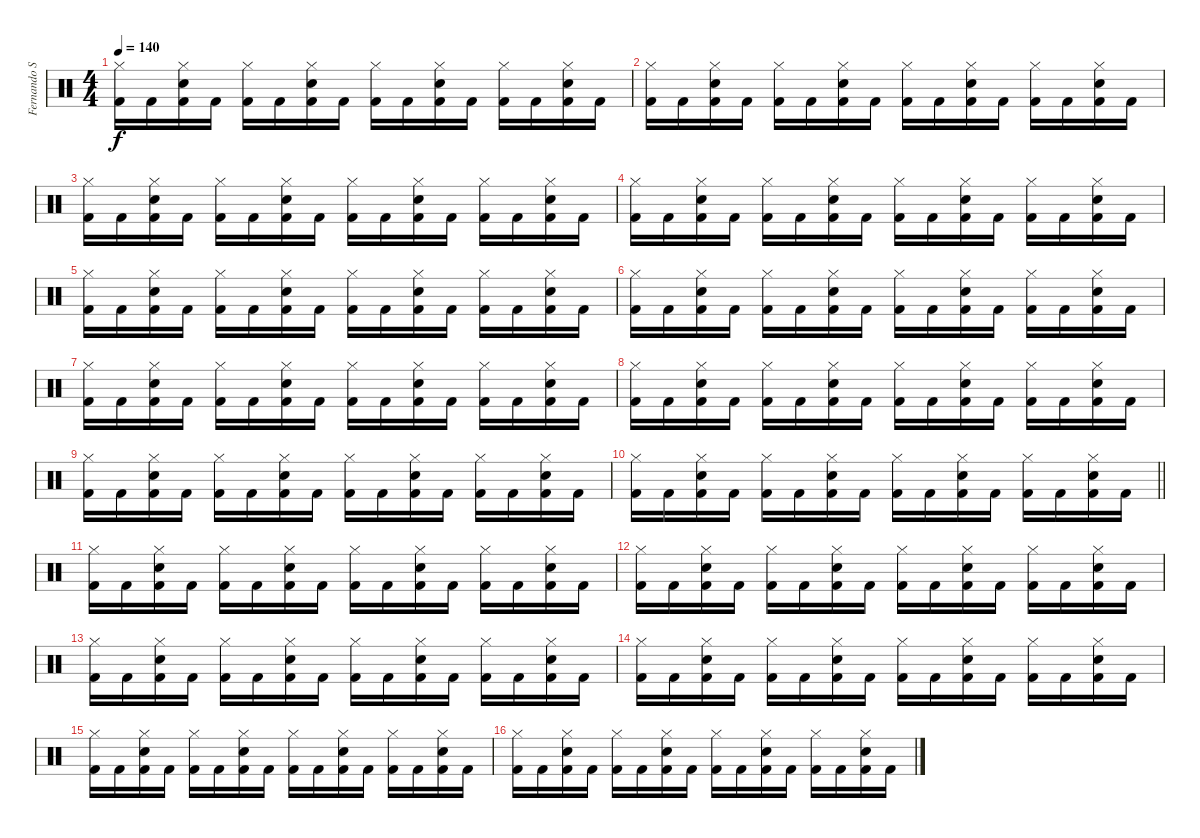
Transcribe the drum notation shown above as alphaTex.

\track ("Fernando Scarcella" "Fernando S") {instrument percussion}
\staff {score}
\articulation defaults
\ts (4 4)
\tempo 140
\clef neutral
\ks c
("Hi-Hat (closed)" "Kick (hit) 2").16{dy f} "Kick (hit) 2".16 ("Hi-Hat (closed)" "Snare (hit) 2" "Kick (hit) 2").16 "Kick (hit) 2".16 ("Hi-Hat (closed)" "Kick (hit) 2").16 "Kick (hit) 2".16 ("Hi-Hat (closed)" "Snare (hit) 2" "Kick (hit) 2").16 "Kick (hit) 2".16 ("Hi-Hat (closed)" "Kick (hit) 2").16 "Kick (hit) 2".16 ("Hi-Hat (closed)" "Snare (hit) 2" "Kick (hit) 2").16 "Kick (hit) 2".16 ("Hi-Hat (closed)" "Kick (hit) 2").16 "Kick (hit) 2".16 ("Hi-Hat (closed)" "Snare (hit) 2" "Kick (hit) 2").16 "Kick (hit) 2".16 |
("Hi-Hat (closed)" "Kick (hit) 2").16 "Kick (hit) 2".16 ("Hi-Hat (closed)" "Snare (hit) 2" "Kick (hit) 2").16 "Kick (hit) 2".16 ("Hi-Hat (closed)" "Kick (hit) 2").16 "Kick (hit) 2".16 ("Hi-Hat (closed)" "Snare (hit) 2" "Kick (hit) 2").16 "Kick (hit) 2".16 ("Hi-Hat (closed)" "Kick (hit) 2").16 "Kick (hit) 2".16 ("Hi-Hat (closed)" "Snare (hit) 2" "Kick (hit) 2").16 "Kick (hit) 2".16 ("Hi-Hat (closed)" "Kick (hit) 2").16 "Kick (hit) 2".16 ("Hi-Hat (closed)" "Snare (hit) 2" "Kick (hit) 2").16 "Kick (hit) 2".16 |
("Hi-Hat (closed)" "Kick (hit) 2").16 "Kick (hit) 2".16 ("Hi-Hat (closed)" "Snare (hit) 2" "Kick (hit) 2").16 "Kick (hit) 2".16 ("Hi-Hat (closed)" "Kick (hit) 2").16 "Kick (hit) 2".16 ("Hi-Hat (closed)" "Snare (hit) 2" "Kick (hit) 2").16 "Kick (hit) 2".16 ("Hi-Hat (closed)" "Kick (hit) 2").16 "Kick (hit) 2".16 ("Hi-Hat (closed)" "Snare (hit) 2" "Kick (hit) 2").16 "Kick (hit) 2".16 ("Hi-Hat (closed)" "Kick (hit) 2").16 "Kick (hit) 2".16 ("Hi-Hat (closed)" "Snare (hit) 2" "Kick (hit) 2").16 "Kick (hit) 2".16 |
("Hi-Hat (closed)" "Kick (hit) 2").16 "Kick (hit) 2".16 ("Hi-Hat (closed)" "Snare (hit) 2" "Kick (hit) 2").16 "Kick (hit) 2".16 ("Hi-Hat (closed)" "Kick (hit) 2").16 "Kick (hit) 2".16 ("Hi-Hat (closed)" "Snare (hit) 2" "Kick (hit) 2").16 "Kick (hit) 2".16 ("Hi-Hat (closed)" "Kick (hit) 2").16 "Kick (hit) 2".16 ("Hi-Hat (closed)" "Snare (hit) 2" "Kick (hit) 2").16 "Kick (hit) 2".16 ("Hi-Hat (closed)" "Kick (hit) 2").16 "Kick (hit) 2".16 ("Hi-Hat (closed)" "Snare (hit) 2" "Kick (hit) 2").16 "Kick (hit) 2".16 |
("Hi-Hat (closed)" "Kick (hit) 2").16 "Kick (hit) 2".16 ("Hi-Hat (closed)" "Snare (hit) 2" "Kick (hit) 2").16 "Kick (hit) 2".16 ("Hi-Hat (closed)" "Kick (hit) 2").16 "Kick (hit) 2".16 ("Hi-Hat (closed)" "Snare (hit) 2" "Kick (hit) 2").16 "Kick (hit) 2".16 ("Hi-Hat (closed)" "Kick (hit) 2").16 "Kick (hit) 2".16 ("Hi-Hat (closed)" "Snare (hit) 2" "Kick (hit) 2").16 "Kick (hit) 2".16 ("Hi-Hat (closed)" "Kick (hit) 2").16 "Kick (hit) 2".16 ("Hi-Hat (closed)" "Snare (hit) 2" "Kick (hit) 2").16 "Kick (hit) 2".16 |
("Hi-Hat (closed)" "Kick (hit) 2").16 "Kick (hit) 2".16 ("Hi-Hat (closed)" "Snare (hit) 2" "Kick (hit) 2").16 "Kick (hit) 2".16 ("Hi-Hat (closed)" "Kick (hit) 2").16 "Kick (hit) 2".16 ("Hi-Hat (closed)" "Snare (hit) 2" "Kick (hit) 2").16 "Kick (hit) 2".16 ("Hi-Hat (closed)" "Kick (hit) 2").16 "Kick (hit) 2".16 ("Hi-Hat (closed)" "Snare (hit) 2" "Kick (hit) 2").16 "Kick (hit) 2".16 ("Hi-Hat (closed)" "Kick (hit) 2").16 "Kick (hit) 2".16 ("Hi-Hat (closed)" "Snare (hit) 2" "Kick (hit) 2").16 "Kick (hit) 2".16 |
("Hi-Hat (closed)" "Kick (hit) 2").16 "Kick (hit) 2".16 ("Hi-Hat (closed)" "Snare (hit) 2" "Kick (hit) 2").16 "Kick (hit) 2".16 ("Hi-Hat (closed)" "Kick (hit) 2").16 "Kick (hit) 2".16 ("Hi-Hat (closed)" "Snare (hit) 2" "Kick (hit) 2").16 "Kick (hit) 2".16 ("Hi-Hat (closed)" "Kick (hit) 2").16 "Kick (hit) 2".16 ("Hi-Hat (closed)" "Snare (hit) 2" "Kick (hit) 2").16 "Kick (hit) 2".16 ("Hi-Hat (closed)" "Kick (hit) 2").16 "Kick (hit) 2".16 ("Hi-Hat (closed)" "Snare (hit) 2" "Kick (hit) 2").16 "Kick (hit) 2".16 |
("Hi-Hat (closed)" "Kick (hit) 2").16 "Kick (hit) 2".16 ("Hi-Hat (closed)" "Snare (hit) 2" "Kick (hit) 2").16 "Kick (hit) 2".16 ("Hi-Hat (closed)" "Kick (hit) 2").16 "Kick (hit) 2".16 ("Hi-Hat (closed)" "Snare (hit) 2" "Kick (hit) 2").16 "Kick (hit) 2".16 ("Hi-Hat (closed)" "Kick (hit) 2").16 "Kick (hit) 2".16 ("Hi-Hat (closed)" "Snare (hit) 2" "Kick (hit) 2").16 "Kick (hit) 2".16 ("Hi-Hat (closed)" "Kick (hit) 2").16 "Kick (hit) 2".16 ("Hi-Hat (closed)" "Snare (hit) 2" "Kick (hit) 2").16 "Kick (hit) 2".16 |
("Hi-Hat (closed)" "Kick (hit) 2").16 "Kick (hit) 2".16 ("Hi-Hat (closed)" "Snare (hit) 2" "Kick (hit) 2").16 "Kick (hit) 2".16 ("Hi-Hat (closed)" "Kick (hit) 2").16 "Kick (hit) 2".16 ("Hi-Hat (closed)" "Snare (hit) 2" "Kick (hit) 2").16 "Kick (hit) 2".16 ("Hi-Hat (closed)" "Kick (hit) 2").16 "Kick (hit) 2".16 ("Hi-Hat (closed)" "Snare (hit) 2" "Kick (hit) 2").16 "Kick (hit) 2".16 ("Hi-Hat (closed)" "Kick (hit) 2").16 "Kick (hit) 2".16 ("Hi-Hat (closed)" "Snare (hit) 2" "Kick (hit) 2").16 "Kick (hit) 2".16 |
\barLineRight lightlight
("Hi-Hat (closed)" "Kick (hit) 2").16 "Kick (hit) 2".16 ("Hi-Hat (closed)" "Snare (hit) 2" "Kick (hit) 2").16 "Kick (hit) 2".16 ("Hi-Hat (closed)" "Kick (hit) 2").16 "Kick (hit) 2".16 ("Hi-Hat (closed)" "Snare (hit) 2" "Kick (hit) 2").16 "Kick (hit) 2".16 ("Hi-Hat (closed)" "Kick (hit) 2").16 "Kick (hit) 2".16 ("Hi-Hat (closed)" "Snare (hit) 2" "Kick (hit) 2").16 "Kick (hit) 2".16 ("Hi-Hat (closed)" "Kick (hit) 2").16 "Kick (hit) 2".16 ("Hi-Hat (closed)" "Snare (hit) 2" "Kick (hit) 2").16 "Kick (hit) 2".16 |
("Hi-Hat (closed)" "Kick (hit) 2").16 "Kick (hit) 2".16 ("Hi-Hat (closed)" "Snare (hit) 2" "Kick (hit) 2").16 "Kick (hit) 2".16 ("Hi-Hat (closed)" "Kick (hit) 2").16 "Kick (hit) 2".16 ("Hi-Hat (closed)" "Snare (hit) 2" "Kick (hit) 2").16 "Kick (hit) 2".16 ("Hi-Hat (closed)" "Kick (hit) 2").16 "Kick (hit) 2".16 ("Hi-Hat (closed)" "Snare (hit) 2" "Kick (hit) 2").16 "Kick (hit) 2".16 ("Hi-Hat (closed)" "Kick (hit) 2").16 "Kick (hit) 2".16 ("Hi-Hat (closed)" "Snare (hit) 2" "Kick (hit) 2").16 "Kick (hit) 2".16 |
("Hi-Hat (closed)" "Kick (hit) 2").16 "Kick (hit) 2".16 ("Hi-Hat (closed)" "Snare (hit) 2" "Kick (hit) 2").16 "Kick (hit) 2".16 ("Hi-Hat (closed)" "Kick (hit) 2").16 "Kick (hit) 2".16 ("Hi-Hat (closed)" "Snare (hit) 2" "Kick (hit) 2").16 "Kick (hit) 2".16 ("Hi-Hat (closed)" "Kick (hit) 2").16 "Kick (hit) 2".16 ("Hi-Hat (closed)" "Snare (hit) 2" "Kick (hit) 2").16 "Kick (hit) 2".16 ("Hi-Hat (closed)" "Kick (hit) 2").16 "Kick (hit) 2".16 ("Hi-Hat (closed)" "Snare (hit) 2" "Kick (hit) 2").16 "Kick (hit) 2".16 |
("Hi-Hat (closed)" "Kick (hit) 2").16 "Kick (hit) 2".16 ("Hi-Hat (closed)" "Snare (hit) 2" "Kick (hit) 2").16 "Kick (hit) 2".16 ("Hi-Hat (closed)" "Kick (hit) 2").16 "Kick (hit) 2".16 ("Hi-Hat (closed)" "Snare (hit) 2" "Kick (hit) 2").16 "Kick (hit) 2".16 ("Hi-Hat (closed)" "Kick (hit) 2").16 "Kick (hit) 2".16 ("Hi-Hat (closed)" "Snare (hit) 2" "Kick (hit) 2").16 "Kick (hit) 2".16 ("Hi-Hat (closed)" "Kick (hit) 2").16 "Kick (hit) 2".16 ("Hi-Hat (closed)" "Snare (hit) 2" "Kick (hit) 2").16 "Kick (hit) 2".16 |
("Hi-Hat (closed)" "Kick (hit) 2").16 "Kick (hit) 2".16 ("Hi-Hat (closed)" "Snare (hit) 2" "Kick (hit) 2").16 "Kick (hit) 2".16 ("Hi-Hat (closed)" "Kick (hit) 2").16 "Kick (hit) 2".16 ("Hi-Hat (closed)" "Snare (hit) 2" "Kick (hit) 2").16 "Kick (hit) 2".16 ("Hi-Hat (closed)" "Kick (hit) 2").16 "Kick (hit) 2".16 ("Hi-Hat (closed)" "Snare (hit) 2" "Kick (hit) 2").16 "Kick (hit) 2".16 ("Hi-Hat (closed)" "Kick (hit) 2").16 "Kick (hit) 2".16 ("Hi-Hat (closed)" "Snare (hit) 2" "Kick (hit) 2").16 "Kick (hit) 2".16 |
("Hi-Hat (closed)" "Kick (hit) 2").16 "Kick (hit) 2".16 ("Hi-Hat (closed)" "Snare (hit) 2" "Kick (hit) 2").16 "Kick (hit) 2".16 ("Hi-Hat (closed)" "Kick (hit) 2").16 "Kick (hit) 2".16 ("Hi-Hat (closed)" "Snare (hit) 2" "Kick (hit) 2").16 "Kick (hit) 2".16 ("Hi-Hat (closed)" "Kick (hit) 2").16 "Kick (hit) 2".16 ("Hi-Hat (closed)" "Snare (hit) 2" "Kick (hit) 2").16 "Kick (hit) 2".16 ("Hi-Hat (closed)" "Kick (hit) 2").16 "Kick (hit) 2".16 ("Hi-Hat (closed)" "Snare (hit) 2" "Kick (hit) 2").16 "Kick (hit) 2".16 |
("Hi-Hat (closed)" "Kick (hit) 2").16 "Kick (hit) 2".16 ("Hi-Hat (closed)" "Snare (hit) 2" "Kick (hit) 2").16 "Kick (hit) 2".16 ("Hi-Hat (closed)" "Kick (hit) 2").16 "Kick (hit) 2".16 ("Hi-Hat (closed)" "Snare (hit) 2" "Kick (hit) 2").16 "Kick (hit) 2".16 ("Hi-Hat (closed)" "Kick (hit) 2").16 "Kick (hit) 2".16 ("Hi-Hat (closed)" "Snare (hit) 2" "Kick (hit) 2").16 "Kick (hit) 2".16 ("Hi-Hat (closed)" "Kick (hit) 2").16 "Kick (hit) 2".16 ("Hi-Hat (closed)" "Snare (hit) 2" "Kick (hit) 2").16 "Kick (hit) 2".16
